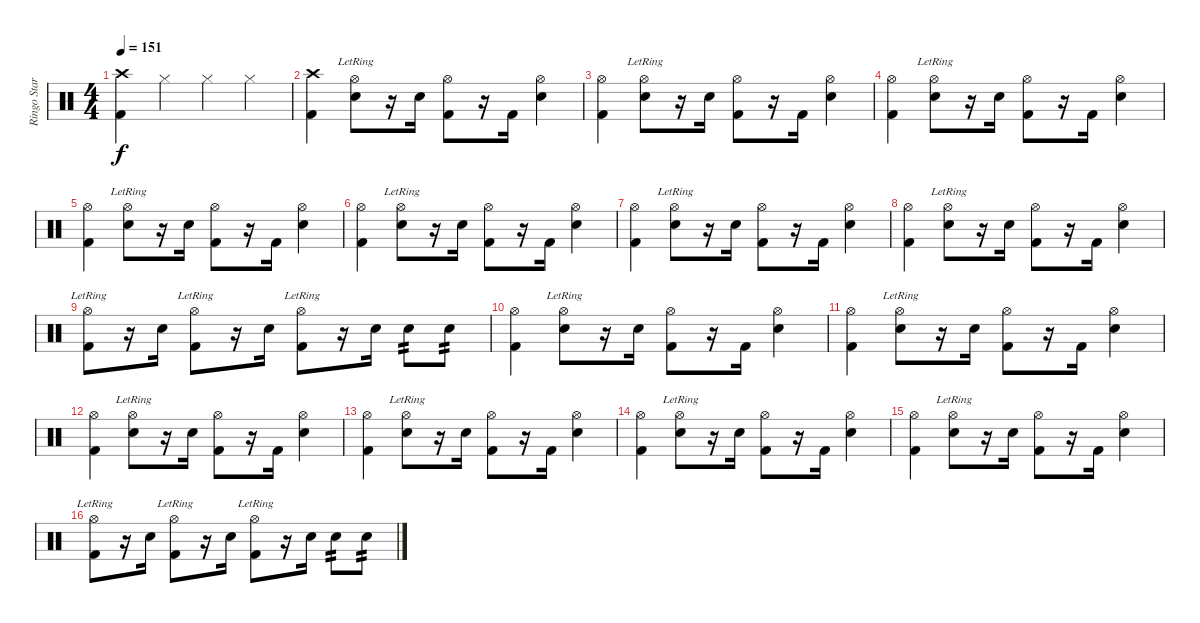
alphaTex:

\track ("Ringo Star" "Ringo Star") {instrument percussion}
\staff {score}
\articulation defaults
\ts (4 4)
\tempo 151
\clef neutral
\ks c
("Crash high (hit)" "Kick (hit) 2").4{dy f} "Hi-Hat (closed)".4 "Hi-Hat (closed)".4 "Hi-Hat (closed)".4 |
("Crash high (hit)" "Kick (hit) 2").4 ("Hi-Hat (open)"{lr} "Snare (hit) 2").8 r.16 "Snare (hit) 2".16 ("Hi-Hat (open)" "Kick (hit) 2").8 r.16 "Kick (hit) 2".16 ("Hi-Hat (open)" "Snare (hit) 2").4 |
("Hi-Hat (open)" "Kick (hit) 2").4 ("Hi-Hat (open)"{lr} "Snare (hit) 2").8 r.16 "Snare (hit) 2".16 ("Hi-Hat (open)" "Kick (hit) 2").8 r.16 "Kick (hit) 2".16 ("Hi-Hat (open)" "Snare (hit) 2").4 |
("Hi-Hat (open)" "Kick (hit) 2").4 ("Hi-Hat (open)"{lr} "Snare (hit) 2").8 r.16 "Snare (hit) 2".16 ("Hi-Hat (open)" "Kick (hit) 2").8 r.16 "Kick (hit) 2".16 ("Hi-Hat (open)" "Snare (hit) 2").4 |
("Hi-Hat (open)" "Kick (hit) 2").4 ("Hi-Hat (open)"{lr} "Snare (hit) 2").8 r.16 "Snare (hit) 2".16 ("Hi-Hat (open)" "Kick (hit) 2").8 r.16 "Kick (hit) 2".16 ("Hi-Hat (open)" "Snare (hit) 2").4 |
("Hi-Hat (open)" "Kick (hit) 2").4 ("Hi-Hat (open)"{lr} "Snare (hit) 2").8 r.16 "Snare (hit) 2".16 ("Hi-Hat (open)" "Kick (hit) 2").8 r.16 "Kick (hit) 2".16 ("Hi-Hat (open)" "Snare (hit) 2").4 |
("Hi-Hat (open)" "Kick (hit) 2").4 ("Hi-Hat (open)"{lr} "Snare (hit) 2").8 r.16 "Snare (hit) 2".16 ("Hi-Hat (open)" "Kick (hit) 2").8 r.16 "Kick (hit) 2".16 ("Hi-Hat (open)" "Snare (hit) 2").4 |
("Hi-Hat (open)" "Kick (hit) 2").4 ("Hi-Hat (open)"{lr} "Snare (hit) 2").8 r.16 "Snare (hit) 2".16 ("Hi-Hat (open)" "Kick (hit) 2").8 r.16 "Kick (hit) 2".16 ("Hi-Hat (open)" "Snare (hit) 2").4 |
("Hi-Hat (open)"{lr} "Kick (hit) 2").8 r.16 "Snare (hit) 2".16 ("Hi-Hat (open)"{lr} "Kick (hit) 2").8 r.16 "Snare (hit) 2".16 ("Hi-Hat (open)"{lr} "Kick (hit) 2").8 r.16 "Snare (hit) 2".16 "Snare (hit) 2".8{tp 2} "Snare (hit) 2".8{tp 2} |
("Hi-Hat (open)" "Kick (hit) 2").4 ("Hi-Hat (open)"{lr} "Snare (hit) 2").8 r.16 "Snare (hit) 2".16 ("Hi-Hat (open)" "Kick (hit) 2").8 r.16 "Kick (hit) 2".16 ("Hi-Hat (open)" "Snare (hit) 2").4 |
("Hi-Hat (open)" "Kick (hit) 2").4 ("Hi-Hat (open)"{lr} "Snare (hit) 2").8 r.16 "Snare (hit) 2".16 ("Hi-Hat (open)" "Kick (hit) 2").8 r.16 "Kick (hit) 2".16 ("Hi-Hat (open)" "Snare (hit) 2").4 |
("Hi-Hat (open)" "Kick (hit) 2").4 ("Hi-Hat (open)"{lr} "Snare (hit) 2").8 r.16 "Snare (hit) 2".16 ("Hi-Hat (open)" "Kick (hit) 2").8 r.16 "Kick (hit) 2".16 ("Hi-Hat (open)" "Snare (hit) 2").4 |
("Hi-Hat (open)" "Kick (hit) 2").4 ("Hi-Hat (open)"{lr} "Snare (hit) 2").8 r.16 "Snare (hit) 2".16 ("Hi-Hat (open)" "Kick (hit) 2").8 r.16 "Kick (hit) 2".16 ("Hi-Hat (open)" "Snare (hit) 2").4 |
("Hi-Hat (open)" "Kick (hit) 2").4 ("Hi-Hat (open)"{lr} "Snare (hit) 2").8 r.16 "Snare (hit) 2".16 ("Hi-Hat (open)" "Kick (hit) 2").8 r.16 "Kick (hit) 2".16 ("Hi-Hat (open)" "Snare (hit) 2").4 |
("Hi-Hat (open)" "Kick (hit) 2").4 ("Hi-Hat (open)"{lr} "Snare (hit) 2").8 r.16 "Snare (hit) 2".16 ("Hi-Hat (open)" "Kick (hit) 2").8 r.16 "Kick (hit) 2".16 ("Hi-Hat (open)" "Snare (hit) 2").4 |
("Hi-Hat (open)"{lr} "Kick (hit) 2").8 r.16 "Snare (hit) 2".16 ("Hi-Hat (open)"{lr} "Kick (hit) 2").8 r.16 "Snare (hit) 2".16 ("Hi-Hat (open)"{lr} "Kick (hit) 2").8 r.16 "Snare (hit) 2".16 "Snare (hit) 2".8{tp 2} "Snare (hit) 2".8{tp 2}
